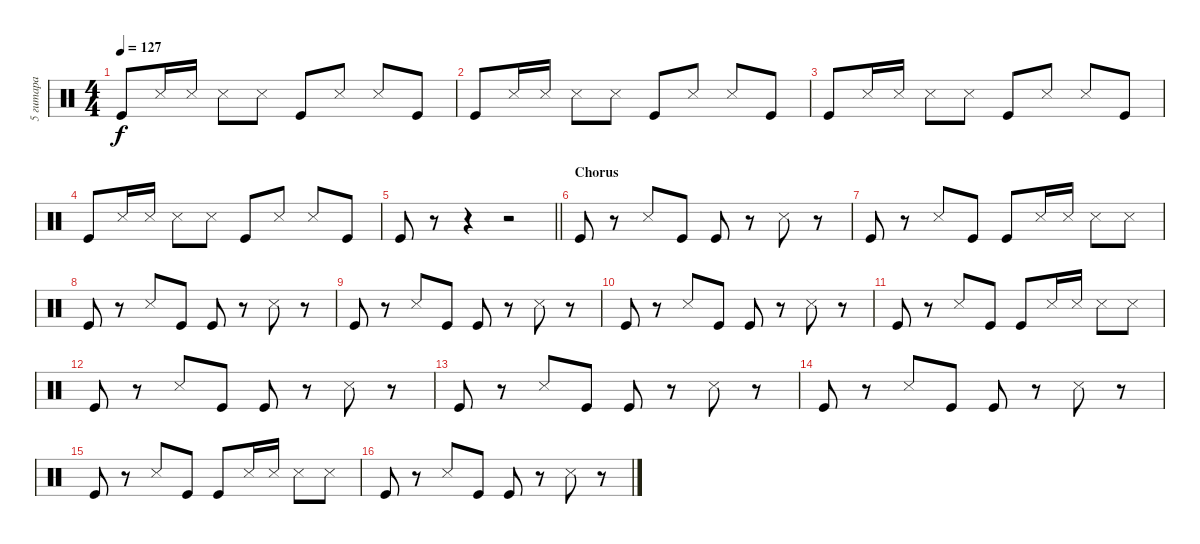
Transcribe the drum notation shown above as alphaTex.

\track ("5 гитара" "5 гитара") {instrument percussion}
\staff {score}
\articulation defaults
\ts (4 4)
\tempo 127
\clef neutral
\ks c "Kick (hit)".8{dy f} "Snare (side stick) 3".16 "Snare (side stick) 3".16 "Snare (side stick) 3".8 "Snare (side stick) 3".8 "Kick (hit)".8 "Snare (side stick) 3".8 "Snare (side stick) 3".8 "Kick (hit)".8
|
"Kick (hit)".8 "Snare (side stick) 3".16 "Snare (side stick) 3".16 "Snare (side stick) 3".8 "Snare (side stick) 3".8 "Kick (hit)".8 "Snare (side stick) 3".8 "Snare (side stick) 3".8 "Kick (hit)".8 |
"Kick (hit)".8 "Snare (side stick) 3".16 "Snare (side stick) 3".16 "Snare (side stick) 3".8 "Snare (side stick) 3".8 "Kick (hit)".8 "Snare (side stick) 3".8 "Snare (side stick) 3".8 "Kick (hit)".8 |
"Kick (hit)".8 "Snare (side stick) 3".16 "Snare (side stick) 3".16 "Snare (side stick) 3".8 "Snare (side stick) 3".8 "Kick (hit)".8 "Snare (side stick) 3".8 "Snare (side stick) 3".8 "Kick (hit)".8 |
\barLineRight lightlight "Kick (hit)".8
r.8 r.4 r.2 |
\section ("" "Chorus")
"Kick (hit)".8 r.8 "Snare (side stick) 3".8 "Kick (hit)".8 "Kick (hit)".8 r.8 "Snare (side stick) 3".8 r.8 |
"Kick (hit)".8 r.8 "Snare (side stick) 3".8 "Kick (hit)".8 "Kick (hit)".8 "Snare (side stick) 3".16 "Snare (side stick) 3".16 "Snare (side stick) 3".8 "Snare (side stick) 3".8 |
"Kick (hit)".8 r.8 "Snare (side stick) 3".8 "Kick (hit)".8 "Kick (hit)".8 r.8 "Snare (side stick) 3".8 r.8 |
"Kick (hit)".8 r.8 "Snare (side stick) 3".8 "Kick (hit)".8 "Kick (hit)".8 r.8 "Snare (side stick) 3".8 r.8 |
"Kick (hit)".8 r.8 "Snare (side stick) 3".8 "Kick (hit)".8 "Kick (hit)".8 r.8 "Snare (side stick) 3".8 r.8 |
"Kick (hit)".8 r.8 "Snare (side stick) 3".8 "Kick (hit)".8 "Kick (hit)".8 "Snare (side stick) 3".16 "Snare (side stick) 3".16 "Snare (side stick) 3".8 "Snare (side stick) 3".8 |
"Kick (hit)".8 r.8 "Snare (side stick) 3".8 "Kick (hit)".8 "Kick (hit)".8 r.8 "Snare (side stick) 3".8 r.8 |
"Kick (hit)".8 r.8 "Snare (side stick) 3".8 "Kick (hit)".8 "Kick (hit)".8 r.8 "Snare (side stick) 3".8 r.8 |
"Kick (hit)".8 r.8 "Snare (side stick) 3".8 "Kick (hit)".8 "Kick (hit)".8 r.8 "Snare (side stick) 3".8 r.8 |
"Kick (hit)".8 r.8 "Snare (side stick) 3".8 "Kick (hit)".8 "Kick (hit)".8 "Snare (side stick) 3".16 "Snare (side stick) 3".16 "Snare (side stick) 3".8 "Snare (side stick) 3".8 |
"Kick (hit)".8 r.8 "Snare (side stick) 3".8 "Kick (hit)".8 "Kick (hit)".8 r.8 "Snare (side stick) 3".8 r.8
